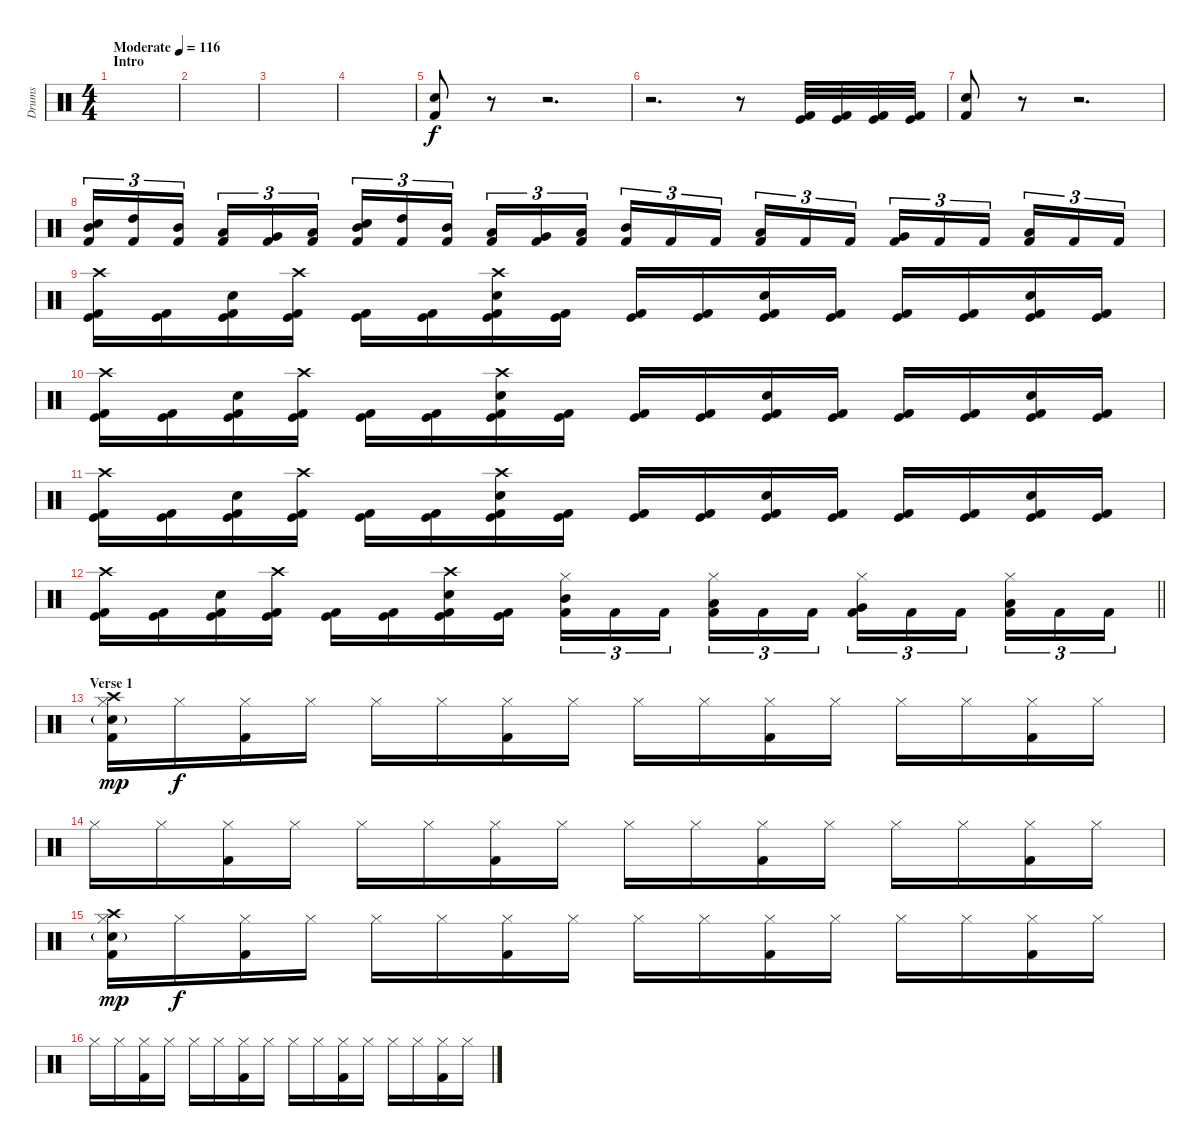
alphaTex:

\track ("Drums" "Drums") {instrument percussion}
\staff {score}
\articulation defaults
\ts (4 4)
\section ("" "Intro")
\tempo (116 "Moderate")
\clef neutral
\ks c
|
|
|
|
("Electric Snare (hit)" "Kick (hit) 2").8 r.8 r.2{d} |
r.2{d} r.8 ("Kick (hit) 2" "Kick (hit)").32 ("Kick (hit) 2" "Kick (hit)").32 ("Kick (hit) 2" "Kick (hit)").32 ("Kick (hit) 2" "Kick (hit)").32 |
("Electric Snare (hit)" "Kick (hit) 2").8 r.8 r.2{d} |
("Electric Snare (hit)" "Mid Tom (hit)" "Kick (hit) 2").16{tu (3 2)} ("Kick (hit) 2" "High Tom (hit)").16{tu (3 2)} ("Kick (hit) 2" "Mid Tom (hit)").16{tu (3 2) beam splitsecondary} ("Kick (hit) 2" "Low Tom (hit)").16{tu (3 2)} ("Kick (hit) 2" "Very Low Tom (hit)").16{tu (3 2)} ("Kick (hit) 2" "Low Floor Tom (hit)").16{tu (3 2)} ("Electric Snare (hit)" "Mid Tom (hit)" "Kick (hit) 2").16{tu (3 2)} ("Kick (hit) 2" "High Tom (hit)").16{tu (3 2)} ("Kick (hit) 2" "Mid Tom (hit)").16{tu (3 2) beam splitsecondary} ("Kick (hit) 2" "Low Tom (hit)").16{tu (3 2)} ("Kick (hit) 2" "Very Low Tom (hit)").16{tu (3 2)} ("Kick (hit) 2" "Low Floor Tom (hit)").16{tu (3 2)} ("Kick (hit) 2" "Mid Tom (hit)").16{tu (3 2)} "Kick (hit) 2".16{tu (3 2)} "Kick (hit) 2".16{tu (3 2) beam splitsecondary} ("Kick (hit) 2" "Low Tom (hit)").16{tu (3 2)} "Kick (hit) 2".16{tu (3 2)} "Kick (hit) 2".16{tu (3 2)} ("Kick (hit) 2" "Very Low Tom (hit)").16{tu (3 2)} "Kick (hit) 2".16{tu (3 2)} "Kick (hit) 2".16{tu (3 2) beam splitsecondary} ("Kick (hit) 2" "Low Floor Tom (hit)").16{tu (3 2)} "Kick (hit) 2".16{tu (3 2)} "Kick (hit) 2".16{tu (3 2)} |
("Kick (hit) 2" "Kick (hit)" "Crash high (hit)").16 ("Kick (hit) 2" "Kick (hit)").16 ("Kick (hit) 2" "Electric Snare (hit)" "Kick (hit)").16 ("Kick (hit) 2" "Kick (hit)" "Crash high (hit)").16 ("Kick (hit) 2" "Kick (hit)").16 ("Kick (hit) 2" "Kick (hit)").16 ("Kick (hit) 2" "Electric Snare (hit)" "Kick (hit)" "Crash high (hit)").16 ("Kick (hit) 2" "Kick (hit)").16 ("Kick (hit) 2" "Kick (hit)").16 ("Kick (hit) 2" "Kick (hit)").16 ("Kick (hit) 2" "Electric Snare (hit)" "Kick (hit)").16 ("Kick (hit) 2" "Kick (hit)").16 ("Kick (hit) 2" "Kick (hit)").16 ("Kick (hit) 2" "Kick (hit)").16 ("Kick (hit) 2" "Electric Snare (hit)" "Kick (hit)").16 ("Kick (hit) 2" "Kick (hit)").16 |
("Kick (hit) 2" "Kick (hit)" "Crash high (hit)").16 ("Kick (hit) 2" "Kick (hit)").16 ("Kick (hit) 2" "Electric Snare (hit)" "Kick (hit)").16 ("Kick (hit) 2" "Kick (hit)" "Crash high (hit)").16 ("Kick (hit) 2" "Kick (hit)").16 ("Kick (hit) 2" "Kick (hit)").16 ("Kick (hit) 2" "Electric Snare (hit)" "Kick (hit)" "Crash high (hit)").16 ("Kick (hit) 2" "Kick (hit)").16 ("Kick (hit) 2" "Kick (hit)").16 ("Kick (hit) 2" "Kick (hit)").16 ("Kick (hit) 2" "Electric Snare (hit)" "Kick (hit)").16 ("Kick (hit) 2" "Kick (hit)").16 ("Kick (hit) 2" "Kick (hit)").16 ("Kick (hit) 2" "Kick (hit)").16 ("Kick (hit) 2" "Electric Snare (hit)" "Kick (hit)").16 ("Kick (hit) 2" "Kick (hit)").16 |
("Kick (hit) 2" "Kick (hit)" "Crash high (hit)").16 ("Kick (hit) 2" "Kick (hit)").16 ("Kick (hit) 2" "Electric Snare (hit)" "Kick (hit)").16 ("Kick (hit) 2" "Kick (hit)" "Crash high (hit)").16 ("Kick (hit) 2" "Kick (hit)").16 ("Kick (hit) 2" "Kick (hit)").16 ("Kick (hit) 2" "Electric Snare (hit)" "Kick (hit)" "Crash high (hit)").16 ("Kick (hit) 2" "Kick (hit)").16 ("Kick (hit) 2" "Kick (hit)").16 ("Kick (hit) 2" "Kick (hit)").16 ("Kick (hit) 2" "Electric Snare (hit)" "Kick (hit)").16 ("Kick (hit) 2" "Kick (hit)").16 ("Kick (hit) 2" "Kick (hit)").16 ("Kick (hit) 2" "Kick (hit)").16 ("Kick (hit) 2" "Electric Snare (hit)" "Kick (hit)").16 ("Kick (hit) 2" "Kick (hit)").16 |
\barLineRight lightlight
("Kick (hit) 2" "Kick (hit)" "Crash high (hit)").16 ("Kick (hit) 2" "Kick (hit)").16 ("Kick (hit) 2" "Electric Snare (hit)" "Kick (hit)").16 ("Kick (hit) 2" "Kick (hit)" "Crash high (hit)").16 ("Kick (hit) 2" "Kick (hit)").16 ("Kick (hit) 2" "Kick (hit)").16 ("Kick (hit) 2" "Electric Snare (hit)" "Kick (hit)" "Crash high (hit)").16 ("Kick (hit) 2" "Kick (hit)").16 ("Kick (hit) 2" "Mid Tom (hit)" "Hi-Hat (closed)").16{tu (3 2)} "Kick (hit) 2".16{tu (3 2)} "Kick (hit) 2".16{tu (3 2) beam splitsecondary} ("Kick (hit) 2" "Low Tom (hit)" "Hi-Hat (closed)").16{tu (3 2)} "Kick (hit) 2".16{tu (3 2)} "Kick (hit) 2".16{tu (3 2)} ("Kick (hit) 2" "Very Low Tom (hit)" "Hi-Hat (closed)").16{tu (3 2)} "Kick (hit) 2".16{tu (3 2)} "Kick (hit) 2".16{tu (3 2) beam splitsecondary} ("Kick (hit) 2" "Low Floor Tom (hit)" "Hi-Hat (closed)").16{tu (3 2)} "Kick (hit) 2".16{tu (3 2)} "Kick (hit) 2".16{tu (3 2)} |
\section ("" "Verse 1")
("Hi-Hat (closed)" "Crash high (hit)" "Kick (hit) 2" "Electric Snare (hit)"{g}).16{dy mp} "Hi-Hat (closed)".16{dy f} ("Hi-Hat (closed)" "Kick (hit) 2").16 "Hi-Hat (closed)".16 "Hi-Hat (closed)".16 "Hi-Hat (closed)".16 ("Hi-Hat (closed)" "Kick (hit) 2").16 "Hi-Hat (closed)".16 "Hi-Hat (closed)".16 "Hi-Hat (closed)".16 ("Hi-Hat (closed)" "Kick (hit) 2").16 "Hi-Hat (closed)".16 "Hi-Hat (closed)".16 "Hi-Hat (closed)".16 ("Hi-Hat (closed)" "Kick (hit) 2").16 "Hi-Hat (closed)".16 |
"Hi-Hat (closed)".16 "Hi-Hat (closed)".16 ("Hi-Hat (closed)" "Kick (hit) 2").16 "Hi-Hat (closed)".16 "Hi-Hat (closed)".16 "Hi-Hat (closed)".16 ("Hi-Hat (closed)" "Kick (hit) 2").16 "Hi-Hat (closed)".16 "Hi-Hat (closed)".16 "Hi-Hat (closed)".16 ("Hi-Hat (closed)" "Kick (hit) 2").16 "Hi-Hat (closed)".16 "Hi-Hat (closed)".16 "Hi-Hat (closed)".16 ("Hi-Hat (closed)" "Kick (hit) 2").16 "Hi-Hat (closed)".16 |
("Hi-Hat (closed)" "Kick (hit) 2" "Crash high (hit)" "Electric Snare (hit)"{g}).16{dy mp} "Hi-Hat (closed)".16{dy f} ("Hi-Hat (closed)" "Kick (hit) 2").16 "Hi-Hat (closed)".16 "Hi-Hat (closed)".16 "Hi-Hat (closed)".16 ("Hi-Hat (closed)" "Kick (hit) 2").16 "Hi-Hat (closed)".16 "Hi-Hat (closed)".16 "Hi-Hat (closed)".16 ("Hi-Hat (closed)" "Kick (hit) 2").16 "Hi-Hat (closed)".16 "Hi-Hat (closed)".16 "Hi-Hat (closed)".16 ("Hi-Hat (closed)" "Kick (hit) 2").16 "Hi-Hat (closed)".16 |
"Hi-Hat (closed)".16 "Hi-Hat (closed)".16 ("Hi-Hat (closed)" "Kick (hit) 2").16 "Hi-Hat (closed)".16 "Hi-Hat (closed)".16 "Hi-Hat (closed)".16 ("Hi-Hat (closed)" "Kick (hit) 2").16 "Hi-Hat (closed)".16 "Hi-Hat (closed)".16 "Hi-Hat (closed)".16 ("Hi-Hat (closed)" "Kick (hit) 2").16 "Hi-Hat (closed)".16 "Hi-Hat (closed)".16 "Hi-Hat (closed)".16 ("Hi-Hat (closed)" "Kick (hit) 2").16 "Hi-Hat (closed)".16
